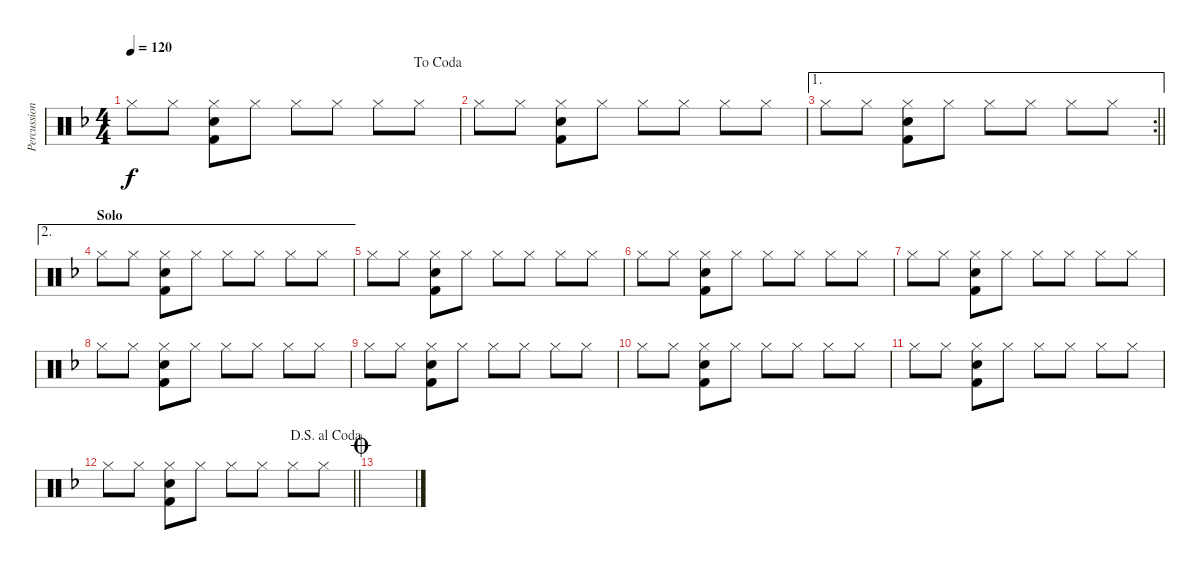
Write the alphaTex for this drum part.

\track ("Percussion" "Percussion") {instrument percussion}
\staff {score}
\articulation defaults
\ts (4 4)
\jump dacoda
\tempo 120
\clef neutral
\ks f "Hi-Hat (closed)".8{dy f} "Hi-Hat (closed)".8
("Hi-Hat (closed)" "Snare (hit) 2" "Kick (hit) 2").8 "Hi-Hat (closed)".8 "Hi-Hat (closed)".8 "Hi-Hat (closed)".8 "Hi-Hat (closed)".8 "Hi-Hat (closed)".8 |
"Hi-Hat (closed)".8 "Hi-Hat (closed)".8 ("Hi-Hat (closed)" "Snare (hit) 2" "Kick (hit) 2").8 "Hi-Hat (closed)".8 "Hi-Hat (closed)".8 "Hi-Hat (closed)".8 "Hi-Hat (closed)".8 "Hi-Hat (closed)".8 |
\ae 1
\rc 2
\barLineRight lightlight "Hi-Hat (closed)".8 "Hi-Hat (closed)".8
("Hi-Hat (closed)" "Snare (hit) 2" "Kick (hit) 2").8 "Hi-Hat (closed)".8 "Hi-Hat (closed)".8 "Hi-Hat (closed)".8 "Hi-Hat (closed)".8 "Hi-Hat (closed)".8 |
\ae 2
\section ("" "Solo")
"Hi-Hat (closed)".8 "Hi-Hat (closed)".8 ("Hi-Hat (closed)" "Snare (hit) 2" "Kick (hit) 2").8 "Hi-Hat (closed)".8 "Hi-Hat (closed)".8 "Hi-Hat (closed)".8 "Hi-Hat (closed)".8 "Hi-Hat (closed)".8 |
"Hi-Hat (closed)".8 "Hi-Hat (closed)".8 ("Hi-Hat (closed)" "Snare (hit) 2" "Kick (hit) 2").8 "Hi-Hat (closed)".8 "Hi-Hat (closed)".8 "Hi-Hat (closed)".8 "Hi-Hat (closed)".8 "Hi-Hat (closed)".8 |
"Hi-Hat (closed)".8 "Hi-Hat (closed)".8 ("Hi-Hat (closed)" "Snare (hit) 2" "Kick (hit) 2").8 "Hi-Hat (closed)".8 "Hi-Hat (closed)".8 "Hi-Hat (closed)".8 "Hi-Hat (closed)".8 "Hi-Hat (closed)".8 |
"Hi-Hat (closed)".8 "Hi-Hat (closed)".8 ("Hi-Hat (closed)" "Snare (hit) 2" "Kick (hit) 2").8 "Hi-Hat (closed)".8 "Hi-Hat (closed)".8 "Hi-Hat (closed)".8 "Hi-Hat (closed)".8 "Hi-Hat (closed)".8 |
"Hi-Hat (closed)".8 "Hi-Hat (closed)".8 ("Hi-Hat (closed)" "Snare (hit) 2" "Kick (hit) 2").8 "Hi-Hat (closed)".8 "Hi-Hat (closed)".8 "Hi-Hat (closed)".8 "Hi-Hat (closed)".8 "Hi-Hat (closed)".8 |
"Hi-Hat (closed)".8 "Hi-Hat (closed)".8 ("Hi-Hat (closed)" "Snare (hit) 2" "Kick (hit) 2").8 "Hi-Hat (closed)".8 "Hi-Hat (closed)".8 "Hi-Hat (closed)".8 "Hi-Hat (closed)".8 "Hi-Hat (closed)".8 |
"Hi-Hat (closed)".8 "Hi-Hat (closed)".8 ("Hi-Hat (closed)" "Snare (hit) 2" "Kick (hit) 2").8 "Hi-Hat (closed)".8 "Hi-Hat (closed)".8 "Hi-Hat (closed)".8 "Hi-Hat (closed)".8 "Hi-Hat (closed)".8 |
"Hi-Hat (closed)".8 "Hi-Hat (closed)".8 ("Hi-Hat (closed)" "Snare (hit) 2" "Kick (hit) 2").8 "Hi-Hat (closed)".8 "Hi-Hat (closed)".8 "Hi-Hat (closed)".8 "Hi-Hat (closed)".8 "Hi-Hat (closed)".8 |
\jump dalsegnoalcoda
\barLineRight lightlight "Hi-Hat (closed)".8 "Hi-Hat (closed)".8
("Hi-Hat (closed)" "Snare (hit) 2" "Kick (hit) 2").8 "Hi-Hat (closed)".8 "Hi-Hat (closed)".8 "Hi-Hat (closed)".8 "Hi-Hat (closed)".8 "Hi-Hat (closed)".8 |
\jump coda
